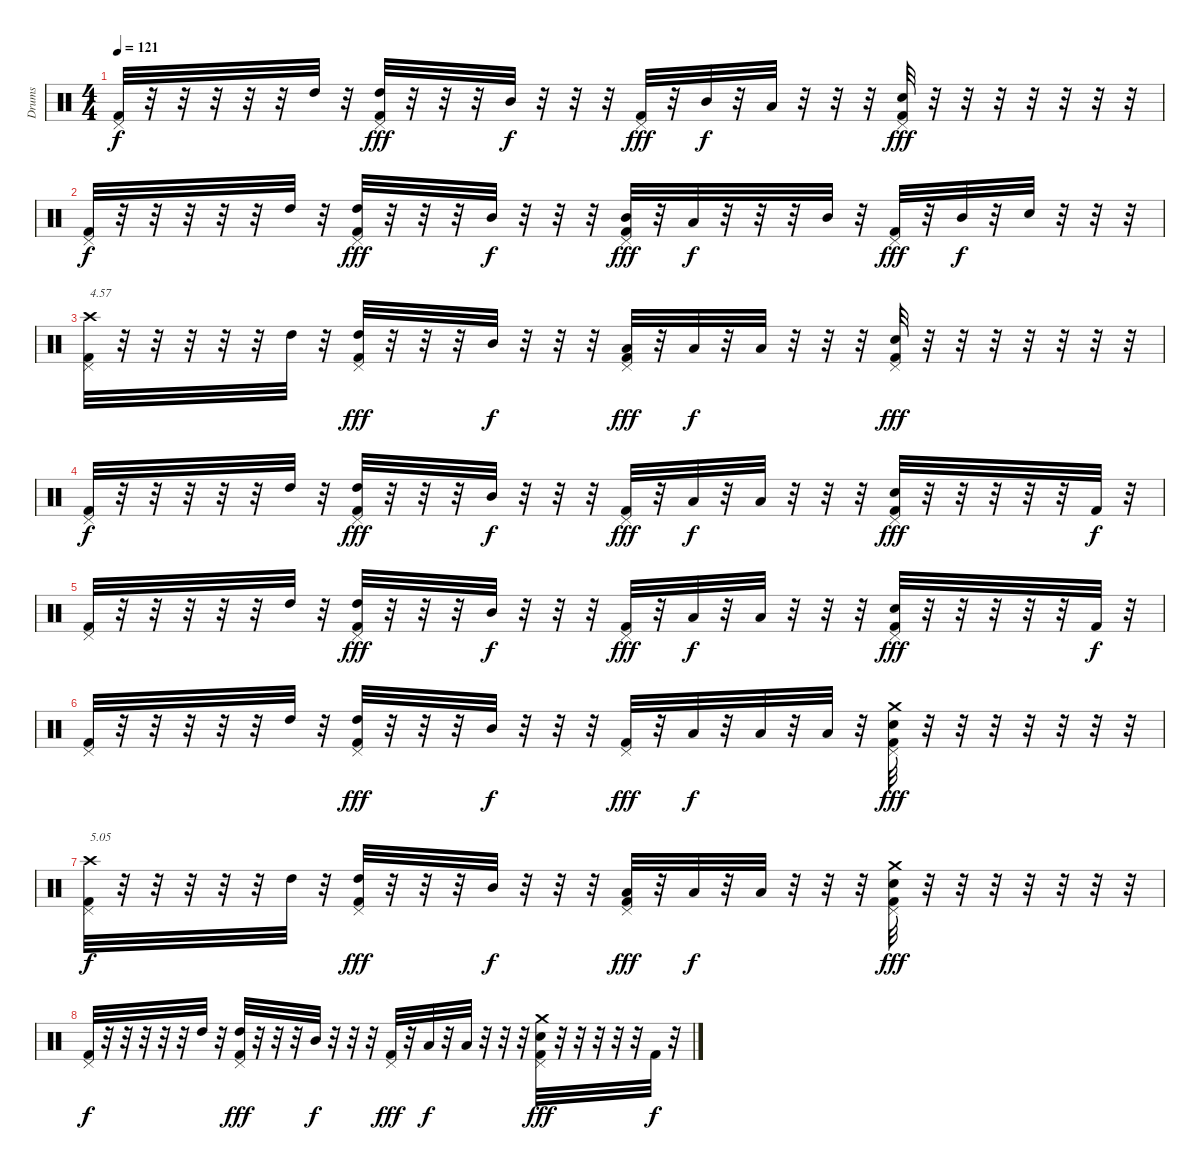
\track ("Drums" "Drums") {instrument percussion}
\staff {score}
\articulation defaults
\ts (4 4)
\tempo 121
\clef neutral
\ks c
("Pedal Hi-Hat (hit)" "Kick (hit) 2").32{dy f} r.32 r.32 r.32 r.32 r.32 "High Tom (hit)".32 r.32 ("Pedal Hi-Hat (hit)" "Kick (hit) 2" "High Tom (hit)").32{dy fff} r.32 r.32 r.32 "Mid Tom (hit)".32{dy f} r.32 r.32 r.32 ("Pedal Hi-Hat (hit)" "Kick (hit) 2").32{dy fff} r.32 "Mid Tom (hit)".32{dy f} r.32 "Low Tom (hit)".32 r.32 r.32 r.32 ("Pedal Hi-Hat (hit)" "Kick (hit) 2" "Electric Snare (hit)").32{dy fff} r.32 r.32 r.32 r.32 r.32 r.32 r.32 |
("Pedal Hi-Hat (hit)" "Kick (hit) 2").32{dy f} r.32 r.32 r.32 r.32 r.32 "High Tom (hit)".32 r.32 ("Pedal Hi-Hat (hit)" "Kick (hit) 2" "High Tom (hit)").32{dy fff} r.32 r.32 r.32 "Mid Tom (hit)".32{dy f} r.32 r.32 r.32 ("Pedal Hi-Hat (hit)" "Kick (hit) 2" "Mid Tom (hit)").32{dy fff} r.32 "Low Tom (hit)".32{dy f} r.32 r.32 r.32 "Mid Tom (hit)".32 r.32 ("Pedal Hi-Hat (hit)" "Kick (hit) 2").32{dy fff} r.32 "Mid Tom (hit)".32{dy f} r.32 "Electric Snare (hit)".32 r.32 r.32 r.32 |
("Pedal Hi-Hat (hit)" "Kick (hit) 2" "Crash high (hit)").32{txt "4.57"} r.32 r.32 r.32 r.32 r.32 "High Tom (hit)".32 r.32 ("Pedal Hi-Hat (hit)" "Kick (hit) 2" "High Tom (hit)").32{dy fff} r.32 r.32 r.32 "Mid Tom (hit)".32{dy f} r.32 r.32 r.32 ("Pedal Hi-Hat (hit)" "Kick (hit) 2" "Low Tom (hit)").32{dy fff} r.32 "Low Tom (hit)".32{dy f} r.32 "Low Tom (hit)".32 r.32 r.32 r.32 ("Pedal Hi-Hat (hit)" "Kick (hit) 2" "Electric Snare (hit)").32{dy fff} r.32 r.32 r.32 r.32 r.32 r.32 r.32 |
("Pedal Hi-Hat (hit)" "Kick (hit) 2").32{dy f} r.32 r.32 r.32 r.32 r.32 "High Tom (hit)".32 r.32 ("Pedal Hi-Hat (hit)" "Kick (hit) 2" "High Tom (hit)").32{dy fff} r.32 r.32 r.32 "Mid Tom (hit)".32{dy f} r.32 r.32 r.32 ("Pedal Hi-Hat (hit)" "Kick (hit) 2").32{dy fff} r.32 "Low Tom (hit)".32{dy f} r.32 "Low Tom (hit)".32 r.32 r.32 r.32 ("Pedal Hi-Hat (hit)" "Kick (hit) 2" "Electric Snare (hit)").32{dy fff} r.32 r.32 r.32 r.32 r.32 "Kick (hit) 2".32{dy f} r.32 |
("Pedal Hi-Hat (hit)" "Kick (hit) 2").32 r.32 r.32 r.32 r.32 r.32 "High Tom (hit)".32 r.32 ("Pedal Hi-Hat (hit)" "Kick (hit) 2" "High Tom (hit)").32{dy fff} r.32 r.32 r.32 "Mid Tom (hit)".32{dy f} r.32 r.32 r.32 ("Pedal Hi-Hat (hit)" "Kick (hit) 2").32{dy fff} r.32 "Low Tom (hit)".32{dy f} r.32 "Low Tom (hit)".32 r.32 r.32 r.32 ("Pedal Hi-Hat (hit)" "Kick (hit) 2" "Electric Snare (hit)").32{dy fff} r.32 r.32 r.32 r.32 r.32 "Kick (hit) 2".32{dy f} r.32 |
("Pedal Hi-Hat (hit)" "Kick (hit) 2").32 r.32 r.32 r.32 r.32 r.32 "High Tom (hit)".32 r.32 ("Pedal Hi-Hat (hit)" "Kick (hit) 2" "High Tom (hit)").32{dy fff} r.32 r.32 r.32 "Mid Tom (hit)".32{dy f} r.32 r.32 r.32 ("Pedal Hi-Hat (hit)" "Kick (hit) 2").32{dy fff} r.32 "Low Tom (hit)".32{dy f} r.32 "Low Tom (hit)".32 r.32 "Low Tom (hit)".32 r.32 ("Pedal Hi-Hat (hit)" "Kick (hit) 2" "Crash medium (hit)" "Electric Snare (hit)").32{dy fff} r.32 r.32 r.32 r.32 r.32 r.32 r.32 |
("Pedal Hi-Hat (hit)" "Kick (hit) 2" "Crash high (hit)").32{txt "5.05" dy f} r.32 r.32 r.32 r.32 r.32 "High Tom (hit)".32 r.32 ("Pedal Hi-Hat (hit)" "Kick (hit) 2" "High Tom (hit)").32{dy fff} r.32 r.32 r.32 "Mid Tom (hit)".32{dy f} r.32 r.32 r.32 ("Pedal Hi-Hat (hit)" "Kick (hit) 2" "Low Tom (hit)").32{dy fff} r.32 "Low Tom (hit)".32{dy f} r.32 "Low Tom (hit)".32 r.32 r.32 r.32 ("Pedal Hi-Hat (hit)" "Kick (hit) 2" "Electric Snare (hit)" "Crash medium (hit)").32{dy fff} r.32 r.32 r.32 r.32 r.32 r.32 r.32 |
("Pedal Hi-Hat (hit)" "Kick (hit) 2").32{dy f} r.32 r.32 r.32 r.32 r.32 "High Tom (hit)".32 r.32 ("Pedal Hi-Hat (hit)" "Kick (hit) 2" "High Tom (hit)").32{dy fff} r.32 r.32 r.32 "Mid Tom (hit)".32{dy f} r.32 r.32 r.32 ("Pedal Hi-Hat (hit)" "Kick (hit) 2").32{dy fff} r.32 "Low Tom (hit)".32{dy f} r.32 "Low Tom (hit)".32 r.32 r.32 r.32 ("Pedal Hi-Hat (hit)" "Kick (hit) 2" "Electric Snare (hit)" "Crash medium (hit)").32{dy fff} r.32 r.32 r.32 r.32 r.32 "Kick (hit) 2".32{dy f} r.32
